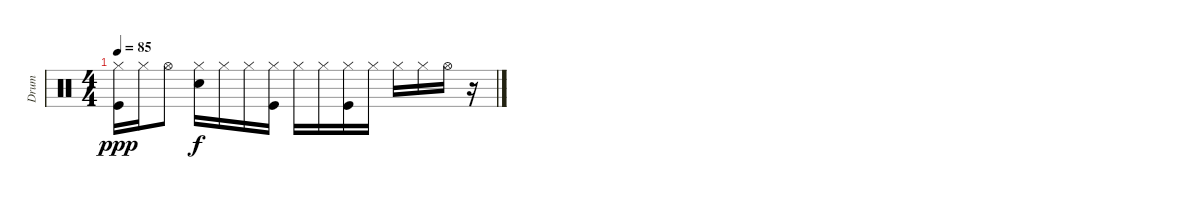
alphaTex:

\track ("Drum" "Drum") {instrument percussion}
\staff {score}
\articulation defaults
\ts (4 4)
\tempo 85
\clef neutral
\ks c
("Hi-Hat (closed)" "Kick (hit)").16{dy ppp} "Hi-Hat (closed)".16 "Hi-Hat (open)".8 ("Hi-Hat (closed)" "Snare (hit) 2").16{dy f} "Hi-Hat (closed)".16 "Hi-Hat (closed)".16 ("Hi-Hat (closed)" "Kick (hit)").16 "Hi-Hat (closed)".16 "Hi-Hat (closed)".16 ("Hi-Hat (closed)" "Kick (hit)").16 "Hi-Hat (closed)".16 "Hi-Hat (closed)".16 "Hi-Hat (closed)".16 "Hi-Hat (open)".16 r.16
